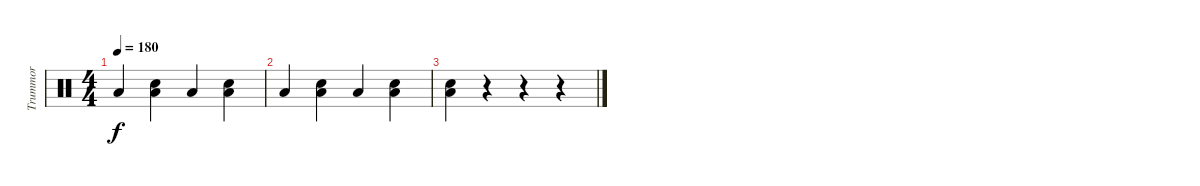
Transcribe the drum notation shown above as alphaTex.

\track ("Trummor" "Trummor") {instrument percussion}
\staff {score}
\articulation defaults
\ts (4 4)
\tempo 180
\clef neutral
\ks c "Low Tom (hit)".4{dy f}
("Low Tom (hit)" "Snare (hit) 2").4 "Low Tom (hit)".4 ("Low Tom (hit)" "Snare (hit) 2").4 |
"Low Tom (hit)".4 ("Low Tom (hit)" "Snare (hit) 2").4 "Low Tom (hit)".4 ("Low Tom (hit)" "Snare (hit) 2").4 |
("Low Tom (hit)" "Snare (hit) 2").4 r.4 r.4 r.4
